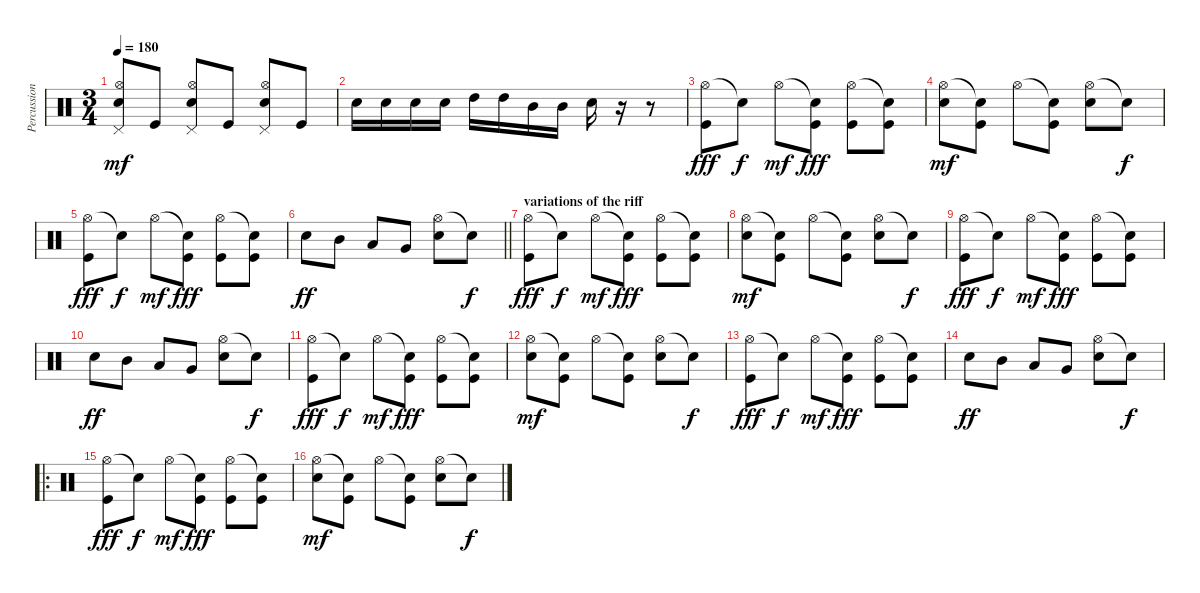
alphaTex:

\track ("Percussion" "Percussion") {instrument percussion}
\staff {score}
\articulation defaults
\ts (3 4)
\tempo 180
\clef neutral
\ks c
("Pedal Hi-Hat (hit)" "Hi-Hat (open)" "Electric Snare (hit)").8{dy mf} "Kick (hit)".8 ("Pedal Hi-Hat (hit)" "Hi-Hat (open)" "Electric Snare (hit)").8 "Kick (hit)".8 ("Pedal Hi-Hat (hit)" "Hi-Hat (open)" "Electric Snare (hit)").8 "Kick (hit)".8 |
"Electric Snare (hit)".16 "Electric Snare (hit)".16 "Electric Snare (hit)".16 "Electric Snare (hit)".16 "High Tom (hit)".16 "High Tom (hit)".16 "Mid Tom (hit)".16 "Mid Tom (hit)".16 "Electric Snare (hit)".16 r.16 r.8 |
("Hi-Hat (open)" "Kick (hit)").8{dy fff} "Snare (hit)"{t}.8{dy f} "Hi-Hat (open)".8{dy mf} ("Snare (hit)"{t} "Kick (hit)").8{dy fff} ("Hi-Hat (open)" "Kick (hit)").8 ("Snare (hit)"{t} "Kick (hit)").8 |
("Hi-Hat (open)" "Electric Snare (hit)").8{dy mf} ("Snare (hit)"{t} "Kick (hit)").8 "Hi-Hat (open)".8 ("Snare (hit)"{t} "Kick (hit)").8 ("Hi-Hat (open)" "Electric Snare (hit)").8 "Snare (hit)"{t}.8{dy f} |
("Hi-Hat (open)" "Kick (hit)").8{dy fff} "Snare (hit)"{t}.8{dy f} "Hi-Hat (open)".8{dy mf} ("Snare (hit)"{t} "Kick (hit)").8{dy fff} ("Hi-Hat (open)" "Kick (hit)").8 ("Snare (hit)"{t} "Kick (hit)").8 |
\barLineRight lightlight "Electric Snare (hit)".8{dy ff} "Mid Tom (hit)".8 "Low Tom (hit)".8 "Very Low Tom (hit)".8
("Hi-Hat (open)" "Electric Snare (hit)").8 "Snare (hit)"{t}.8{dy f} |
\section ("" "variations of the riff")
("Hi-Hat (open)" "Kick (hit)").8{dy fff} "Snare (hit)"{t}.8{dy f} "Hi-Hat (open)".8{dy mf} ("Snare (hit)"{t} "Kick (hit)").8{dy fff} ("Hi-Hat (open)" "Kick (hit)").8 ("Snare (hit)"{t} "Kick (hit)").8 |
("Hi-Hat (open)" "Electric Snare (hit)").8{dy mf} ("Snare (hit)"{t} "Kick (hit)").8 "Hi-Hat (open)".8 ("Snare (hit)"{t} "Kick (hit)").8 ("Hi-Hat (open)" "Electric Snare (hit)").8 "Snare (hit)"{t}.8{dy f} |
("Hi-Hat (open)" "Kick (hit)").8{dy fff} "Snare (hit)"{t}.8{dy f} "Hi-Hat (open)".8{dy mf} ("Snare (hit)"{t} "Kick (hit)").8{dy fff} ("Hi-Hat (open)" "Kick (hit)").8 ("Snare (hit)"{t} "Kick (hit)").8 |
"Electric Snare (hit)".8{dy ff} "Mid Tom (hit)".8 "Low Tom (hit)".8 "Very Low Tom (hit)".8 ("Hi-Hat (open)" "Electric Snare (hit)").8 "Snare (hit)"{t}.8{dy f} |
("Hi-Hat (open)" "Kick (hit)").8{dy fff} "Snare (hit)"{t}.8{dy f} "Hi-Hat (open)".8{dy mf} ("Snare (hit)"{t} "Kick (hit)").8{dy fff} ("Hi-Hat (open)" "Kick (hit)").8 ("Snare (hit)"{t} "Kick (hit)").8 |
("Hi-Hat (open)" "Electric Snare (hit)").8{dy mf} ("Snare (hit)"{t} "Kick (hit)").8 "Hi-Hat (open)".8 ("Snare (hit)"{t} "Kick (hit)").8 ("Hi-Hat (open)" "Electric Snare (hit)").8 "Snare (hit)"{t}.8{dy f} |
("Hi-Hat (open)" "Kick (hit)").8{dy fff} "Snare (hit)"{t}.8{dy f} "Hi-Hat (open)".8{dy mf} ("Snare (hit)"{t} "Kick (hit)").8{dy fff} ("Hi-Hat (open)" "Kick (hit)").8 ("Snare (hit)"{t} "Kick (hit)").8 |
"Electric Snare (hit)".8{dy ff} "Mid Tom (hit)".8 "Low Tom (hit)".8 "Very Low Tom (hit)".8 ("Hi-Hat (open)" "Electric Snare (hit)").8 "Snare (hit)"{t}.8{dy f} |
\ro
("Hi-Hat (open)" "Kick (hit)").8{dy fff} "Snare (hit)"{t}.8{dy f} "Hi-Hat (open)".8{dy mf} ("Snare (hit)"{t} "Kick (hit)").8{dy fff} ("Hi-Hat (open)" "Kick (hit)").8 ("Snare (hit)"{t} "Kick (hit)").8 |
("Hi-Hat (open)" "Electric Snare (hit)").8{dy mf} ("Snare (hit)"{t} "Kick (hit)").8 "Hi-Hat (open)".8 ("Snare (hit)"{t} "Kick (hit)").8 ("Hi-Hat (open)" "Electric Snare (hit)").8 "Snare (hit)"{t}.8{dy f}
